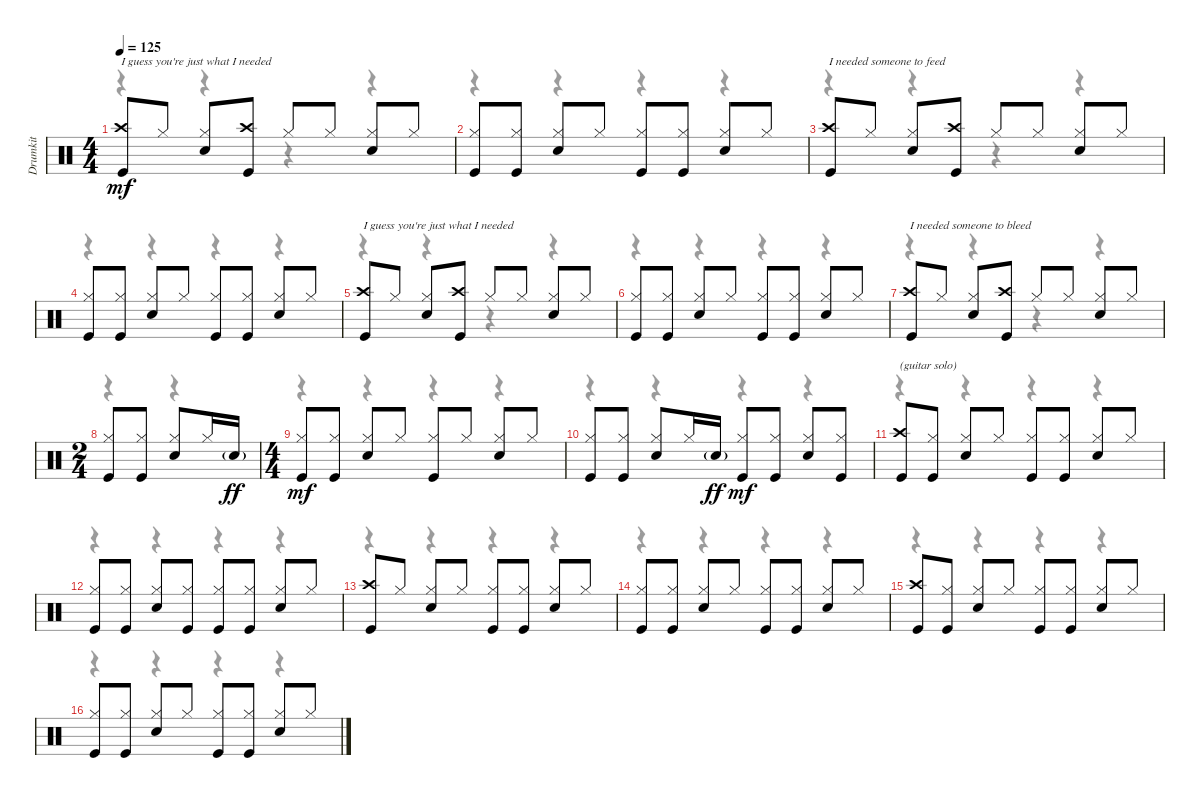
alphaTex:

\track ("Drumkit" "Drumkit") {instrument percussion}
\staff {score}
\articulation defaults
\voice
\ts (4 4)
\tempo 125
\clef neutral
\ks c
("Kick (hit)" "Crash high (hit)").8{txt "I guess you're just what I needed" dy mf} "Hi-Hat (closed)".8 ("Hi-Hat (closed)" "Snare (hit) 2").8 ("Crash high (hit)" "Kick (hit)").8 "Hi-Hat (closed)".8 "Hi-Hat (closed)".8 ("Hi-Hat (closed)" "Snare (hit) 2").8 "Hi-Hat (closed)".8 |
("Hi-Hat (closed)" "Kick (hit)").8 ("Hi-Hat (closed)" "Kick (hit)").8 ("Hi-Hat (closed)" "Snare (hit) 2").8 "Hi-Hat (closed)".8 ("Hi-Hat (closed)" "Kick (hit)").8 ("Hi-Hat (closed)" "Kick (hit)").8 ("Hi-Hat (closed)" "Snare (hit) 2").8 "Hi-Hat (closed)".8 |
("Kick (hit)" "Crash high (hit)").8{txt "I needed someone to feed"} "Hi-Hat (closed)".8 ("Hi-Hat (closed)" "Snare (hit) 2").8 ("Crash high (hit)" "Kick (hit)").8 "Hi-Hat (closed)".8 "Hi-Hat (closed)".8 ("Hi-Hat (closed)" "Snare (hit) 2").8 "Hi-Hat (closed)".8 |
("Hi-Hat (closed)" "Kick (hit)").8 ("Hi-Hat (closed)" "Kick (hit)").8 ("Hi-Hat (closed)" "Snare (hit) 2").8 "Hi-Hat (closed)".8 ("Hi-Hat (closed)" "Kick (hit)").8 ("Hi-Hat (closed)" "Kick (hit)").8 ("Hi-Hat (closed)" "Snare (hit) 2").8 "Hi-Hat (closed)".8 |
("Kick (hit)" "Crash high (hit)").8{txt "I guess you're just what I needed"} "Hi-Hat (closed)".8 ("Hi-Hat (closed)" "Snare (hit) 2").8 ("Crash high (hit)" "Kick (hit)").8 "Hi-Hat (closed)".8 "Hi-Hat (closed)".8 ("Hi-Hat (closed)" "Snare (hit) 2").8 "Hi-Hat (closed)".8 |
("Hi-Hat (closed)" "Kick (hit)").8 ("Hi-Hat (closed)" "Kick (hit)").8 ("Hi-Hat (closed)" "Snare (hit) 2").8 "Hi-Hat (closed)".8 ("Hi-Hat (closed)" "Kick (hit)").8 ("Hi-Hat (closed)" "Kick (hit)").8 ("Hi-Hat (closed)" "Snare (hit) 2").8 "Hi-Hat (closed)".8 |
("Kick (hit)" "Crash high (hit)").8{txt "I needed someone to bleed"} "Hi-Hat (closed)".8 ("Hi-Hat (closed)" "Snare (hit) 2").8 ("Crash high (hit)" "Kick (hit)").8 "Hi-Hat (closed)".8 "Hi-Hat (closed)".8 ("Hi-Hat (closed)" "Snare (hit) 2").8 "Hi-Hat (closed)".8 |
\ts (2 4)
("Hi-Hat (closed)" "Kick (hit)").8 ("Hi-Hat (closed)" "Kick (hit)").8 ("Hi-Hat (closed)" "Snare (hit) 2").8 "Hi-Hat (closed)".16 "Snare (hit) 2"{g}.16{dy ff} |
\ts (4 4)
("Hi-Hat (closed)" "Kick (hit)").8{dy mf} ("Hi-Hat (closed)" "Kick (hit)").8 ("Hi-Hat (closed)" "Snare (hit) 2").8 "Hi-Hat (closed)".8 ("Kick (hit)" "Hi-Hat (closed)").8 "Hi-Hat (closed)".8 ("Hi-Hat (closed)" "Snare (hit) 2").8 "Hi-Hat (closed)".8 |
("Hi-Hat (closed)" "Kick (hit)").8 ("Hi-Hat (closed)" "Kick (hit)").8 ("Hi-Hat (closed)" "Snare (hit) 2").8 "Hi-Hat (closed)".16 "Snare (hit) 2"{g}.16{dy ff} ("Hi-Hat (closed)" "Kick (hit)").8{dy mf} ("Hi-Hat (closed)" "Kick (hit)").8 ("Hi-Hat (closed)" "Snare (hit) 2").8 ("Hi-Hat (closed)" "Kick (hit)").8 |
("Kick (hit)" "Crash high (hit)").8{txt "(guitar solo)"} ("Hi-Hat (closed)" "Kick (hit)").8 ("Hi-Hat (closed)" "Snare (hit) 2").8 "Hi-Hat (closed)".8 ("Hi-Hat (closed)" "Kick (hit)").8 ("Hi-Hat (closed)" "Kick (hit)").8 ("Hi-Hat (closed)" "Snare (hit) 2").8 "Hi-Hat (closed)".8 |
("Hi-Hat (closed)" "Kick (hit)").8 ("Hi-Hat (closed)" "Kick (hit)").8 ("Hi-Hat (closed)" "Snare (hit) 2").8 ("Hi-Hat (closed)" "Kick (hit)").8 ("Hi-Hat (closed)" "Kick (hit)").8 ("Hi-Hat (closed)" "Kick (hit)").8 ("Hi-Hat (closed)" "Snare (hit) 2").8 "Hi-Hat (closed)".8 |
("Kick (hit)" "Crash high (hit)").8 "Hi-Hat (closed)".8 ("Hi-Hat (closed)" "Snare (hit) 2").8 "Hi-Hat (closed)".8 ("Hi-Hat (closed)" "Kick (hit)").8 ("Hi-Hat (closed)" "Kick (hit)").8 ("Hi-Hat (closed)" "Snare (hit) 2").8 "Hi-Hat (closed)".8 |
("Hi-Hat (closed)" "Kick (hit)").8 ("Hi-Hat (closed)" "Kick (hit)").8 ("Hi-Hat (closed)" "Snare (hit) 2").8 "Hi-Hat (closed)".8 ("Hi-Hat (closed)" "Kick (hit)").8 ("Hi-Hat (closed)" "Kick (hit)").8 ("Hi-Hat (closed)" "Snare (hit) 2").8 "Hi-Hat (closed)".8 |
("Kick (hit)" "Crash high (hit)").8 ("Hi-Hat (closed)" "Kick (hit)").8 ("Hi-Hat (closed)" "Snare (hit) 2").8 "Hi-Hat (closed)".8 ("Hi-Hat (closed)" "Kick (hit)").8 ("Hi-Hat (closed)" "Kick (hit)").8 ("Hi-Hat (closed)" "Snare (hit) 2").8 "Hi-Hat (closed)".8 |
("Hi-Hat (closed)" "Kick (hit)").8 ("Hi-Hat (closed)" "Kick (hit)").8 ("Hi-Hat (closed)" "Snare (hit) 2").8 "Hi-Hat (closed)".8 ("Hi-Hat (closed)" "Kick (hit)").8 ("Hi-Hat (closed)" "Kick (hit)").8 ("Hi-Hat (closed)" "Snare (hit) 2").8 "Hi-Hat (closed)".8
\voice
\clef neutral
\ottava regular
\simile none
\ks c
r.4{dy f} r.4 r.4 r.4 |
r.4 r.4 r.4 r.4 |
r.4 r.4 r.4 r.4 |
r.4 r.4 r.4 r.4 |
r.4 r.4 r.4 r.4 |
r.4 r.4 r.4 r.4 |
r.4 r.4 r.4 r.4 |
r.4 r.4 |
r.4 r.4 r.4 r.4 |
r.4 r.4 r.4 r.4 |
r.4 r.4 r.4 r.4 |
r.4 r.4 r.4 r.4 |
r.4 r.4 r.4 r.4 |
r.4 r.4 r.4 r.4 |
r.4 r.4 r.4 r.4 |
r.4 r.4 r.4 r.4
